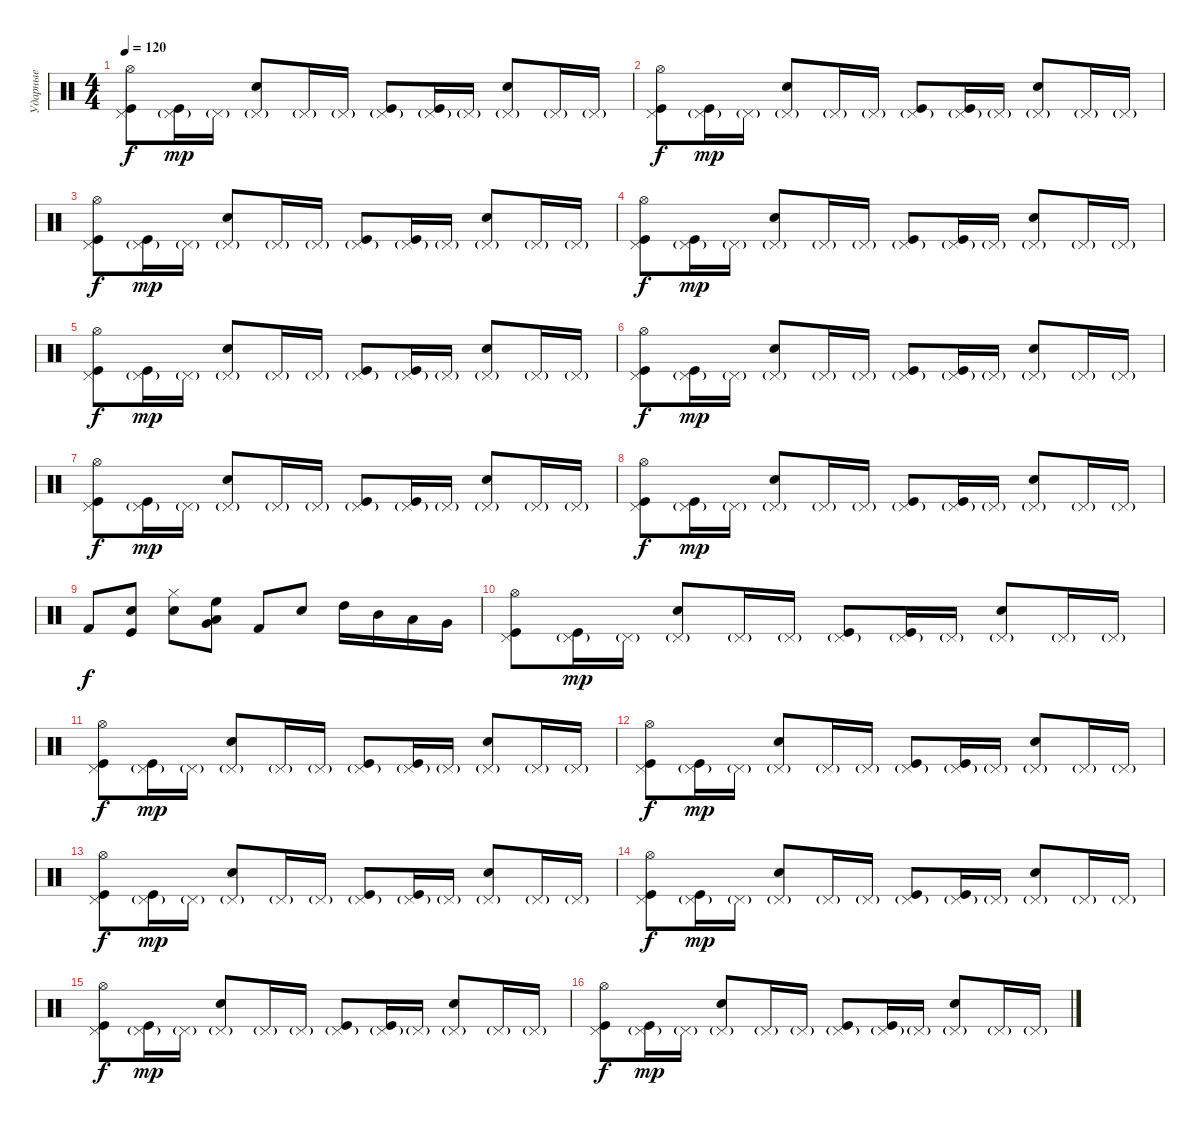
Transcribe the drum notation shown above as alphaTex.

\track ("Ударные" "Ударные") {instrument percussion}
\staff {score}
\articulation defaults
\ts (4 4)
\tempo 120
\clef neutral
\ks c
("Hi-Hat (open)" "Kick (hit)" "Pedal Hi-Hat (hit)").8{dy f} ("Kick (hit)" "Pedal Hi-Hat (hit)"{g}).16{dy mp} "Pedal Hi-Hat (hit)"{g}.16 ("Electric Snare (hit)" "Pedal Hi-Hat (hit)"{g}).8 "Pedal Hi-Hat (hit)"{g}.16 "Pedal Hi-Hat (hit)"{g}.16 ("Kick (hit)" "Pedal Hi-Hat (hit)"{g}).8 ("Kick (hit)" "Pedal Hi-Hat (hit)"{g}).16 "Pedal Hi-Hat (hit)"{g}.16 ("Electric Snare (hit)" "Pedal Hi-Hat (hit)"{g}).8 "Pedal Hi-Hat (hit)"{g}.16 "Pedal Hi-Hat (hit)"{g}.16 |
("Hi-Hat (open)" "Kick (hit)" "Pedal Hi-Hat (hit)").8{dy f} ("Kick (hit)" "Pedal Hi-Hat (hit)"{g}).16{dy mp} "Pedal Hi-Hat (hit)"{g}.16 ("Electric Snare (hit)" "Pedal Hi-Hat (hit)"{g}).8 "Pedal Hi-Hat (hit)"{g}.16 "Pedal Hi-Hat (hit)"{g}.16 ("Kick (hit)" "Pedal Hi-Hat (hit)"{g}).8 ("Kick (hit)" "Pedal Hi-Hat (hit)"{g}).16 "Pedal Hi-Hat (hit)"{g}.16 ("Electric Snare (hit)" "Pedal Hi-Hat (hit)"{g}).8 "Pedal Hi-Hat (hit)"{g}.16 "Pedal Hi-Hat (hit)"{g}.16 |
("Hi-Hat (open)" "Kick (hit)" "Pedal Hi-Hat (hit)").8{dy f} ("Kick (hit)" "Pedal Hi-Hat (hit)"{g}).16{dy mp} "Pedal Hi-Hat (hit)"{g}.16 ("Electric Snare (hit)" "Pedal Hi-Hat (hit)"{g}).8 "Pedal Hi-Hat (hit)"{g}.16 "Pedal Hi-Hat (hit)"{g}.16 ("Kick (hit)" "Pedal Hi-Hat (hit)"{g}).8 ("Kick (hit)" "Pedal Hi-Hat (hit)"{g}).16 "Pedal Hi-Hat (hit)"{g}.16 ("Electric Snare (hit)" "Pedal Hi-Hat (hit)"{g}).8 "Pedal Hi-Hat (hit)"{g}.16 "Pedal Hi-Hat (hit)"{g}.16 |
("Hi-Hat (open)" "Kick (hit)" "Pedal Hi-Hat (hit)").8{dy f} ("Kick (hit)" "Pedal Hi-Hat (hit)"{g}).16{dy mp} "Pedal Hi-Hat (hit)"{g}.16 ("Electric Snare (hit)" "Pedal Hi-Hat (hit)"{g}).8 "Pedal Hi-Hat (hit)"{g}.16 "Pedal Hi-Hat (hit)"{g}.16 ("Kick (hit)" "Pedal Hi-Hat (hit)"{g}).8 ("Kick (hit)" "Pedal Hi-Hat (hit)"{g}).16 "Pedal Hi-Hat (hit)"{g}.16 ("Electric Snare (hit)" "Pedal Hi-Hat (hit)"{g}).8 "Pedal Hi-Hat (hit)"{g}.16 "Pedal Hi-Hat (hit)"{g}.16 |
("Hi-Hat (open)" "Kick (hit)" "Pedal Hi-Hat (hit)").8{dy f} ("Kick (hit)" "Pedal Hi-Hat (hit)"{g}).16{dy mp} "Pedal Hi-Hat (hit)"{g}.16 ("Electric Snare (hit)" "Pedal Hi-Hat (hit)"{g}).8 "Pedal Hi-Hat (hit)"{g}.16 "Pedal Hi-Hat (hit)"{g}.16 ("Kick (hit)" "Pedal Hi-Hat (hit)"{g}).8 ("Kick (hit)" "Pedal Hi-Hat (hit)"{g}).16 "Pedal Hi-Hat (hit)"{g}.16 ("Electric Snare (hit)" "Pedal Hi-Hat (hit)"{g}).8 "Pedal Hi-Hat (hit)"{g}.16 "Pedal Hi-Hat (hit)"{g}.16 |
("Hi-Hat (open)" "Kick (hit)" "Pedal Hi-Hat (hit)").8{dy f} ("Kick (hit)" "Pedal Hi-Hat (hit)"{g}).16{dy mp} "Pedal Hi-Hat (hit)"{g}.16 ("Electric Snare (hit)" "Pedal Hi-Hat (hit)"{g}).8 "Pedal Hi-Hat (hit)"{g}.16 "Pedal Hi-Hat (hit)"{g}.16 ("Kick (hit)" "Pedal Hi-Hat (hit)"{g}).8 ("Kick (hit)" "Pedal Hi-Hat (hit)"{g}).16 "Pedal Hi-Hat (hit)"{g}.16 ("Electric Snare (hit)" "Pedal Hi-Hat (hit)"{g}).8 "Pedal Hi-Hat (hit)"{g}.16 "Pedal Hi-Hat (hit)"{g}.16 |
("Hi-Hat (open)" "Kick (hit)" "Pedal Hi-Hat (hit)").8{dy f} ("Kick (hit)" "Pedal Hi-Hat (hit)"{g}).16{dy mp} "Pedal Hi-Hat (hit)"{g}.16 ("Electric Snare (hit)" "Pedal Hi-Hat (hit)"{g}).8 "Pedal Hi-Hat (hit)"{g}.16 "Pedal Hi-Hat (hit)"{g}.16 ("Kick (hit)" "Pedal Hi-Hat (hit)"{g}).8 ("Kick (hit)" "Pedal Hi-Hat (hit)"{g}).16 "Pedal Hi-Hat (hit)"{g}.16 ("Electric Snare (hit)" "Pedal Hi-Hat (hit)"{g}).8 "Pedal Hi-Hat (hit)"{g}.16 "Pedal Hi-Hat (hit)"{g}.16 |
("Hi-Hat (open)" "Kick (hit)" "Pedal Hi-Hat (hit)").8{dy f} ("Kick (hit)" "Pedal Hi-Hat (hit)"{g}).16{dy mp} "Pedal Hi-Hat (hit)"{g}.16 ("Electric Snare (hit)" "Pedal Hi-Hat (hit)"{g}).8 "Pedal Hi-Hat (hit)"{g}.16 "Pedal Hi-Hat (hit)"{g}.16 ("Kick (hit)" "Pedal Hi-Hat (hit)"{g}).8 ("Kick (hit)" "Pedal Hi-Hat (hit)"{g}).16 "Pedal Hi-Hat (hit)"{g}.16 ("Electric Snare (hit)" "Pedal Hi-Hat (hit)"{g}).8 "Pedal Hi-Hat (hit)"{g}.16 "Pedal Hi-Hat (hit)"{g}.16 |
"Kick (hit) 2".8{dy f} ("Kick (hit)" "Snare (hit) 2").8 ("Hi-Hat (closed)" "Electric Snare (hit)").8 ("Low Tom (hit)" "Very Low Tom (hit)" "High Floor Tom (hit)").8 "Kick (hit) 2".8 "Electric Snare (hit)".8 "High Tom (hit)".16 "Mid Tom (hit)".16 "Low Tom (hit)".16 "Very Low Tom (hit)".16 |
("Hi-Hat (open)" "Kick (hit)" "Pedal Hi-Hat (hit)").8 ("Kick (hit)" "Pedal Hi-Hat (hit)"{g}).16{dy mp} "Pedal Hi-Hat (hit)"{g}.16 ("Electric Snare (hit)" "Pedal Hi-Hat (hit)"{g}).8 "Pedal Hi-Hat (hit)"{g}.16 "Pedal Hi-Hat (hit)"{g}.16 ("Kick (hit)" "Pedal Hi-Hat (hit)"{g}).8 ("Kick (hit)" "Pedal Hi-Hat (hit)"{g}).16 "Pedal Hi-Hat (hit)"{g}.16 ("Electric Snare (hit)" "Pedal Hi-Hat (hit)"{g}).8 "Pedal Hi-Hat (hit)"{g}.16 "Pedal Hi-Hat (hit)"{g}.16 |
("Hi-Hat (open)" "Kick (hit)" "Pedal Hi-Hat (hit)").8{dy f} ("Kick (hit)" "Pedal Hi-Hat (hit)"{g}).16{dy mp} "Pedal Hi-Hat (hit)"{g}.16 ("Electric Snare (hit)" "Pedal Hi-Hat (hit)"{g}).8 "Pedal Hi-Hat (hit)"{g}.16 "Pedal Hi-Hat (hit)"{g}.16 ("Kick (hit)" "Pedal Hi-Hat (hit)"{g}).8 ("Kick (hit)" "Pedal Hi-Hat (hit)"{g}).16 "Pedal Hi-Hat (hit)"{g}.16 ("Electric Snare (hit)" "Pedal Hi-Hat (hit)"{g}).8 "Pedal Hi-Hat (hit)"{g}.16 "Pedal Hi-Hat (hit)"{g}.16 |
("Hi-Hat (open)" "Kick (hit)" "Pedal Hi-Hat (hit)").8{dy f} ("Kick (hit)" "Pedal Hi-Hat (hit)"{g}).16{dy mp} "Pedal Hi-Hat (hit)"{g}.16 ("Electric Snare (hit)" "Pedal Hi-Hat (hit)"{g}).8 "Pedal Hi-Hat (hit)"{g}.16 "Pedal Hi-Hat (hit)"{g}.16 ("Kick (hit)" "Pedal Hi-Hat (hit)"{g}).8 ("Kick (hit)" "Pedal Hi-Hat (hit)"{g}).16 "Pedal Hi-Hat (hit)"{g}.16 ("Electric Snare (hit)" "Pedal Hi-Hat (hit)"{g}).8 "Pedal Hi-Hat (hit)"{g}.16 "Pedal Hi-Hat (hit)"{g}.16 |
("Hi-Hat (open)" "Kick (hit)" "Pedal Hi-Hat (hit)").8{dy f} ("Kick (hit)" "Pedal Hi-Hat (hit)"{g}).16{dy mp} "Pedal Hi-Hat (hit)"{g}.16 ("Electric Snare (hit)" "Pedal Hi-Hat (hit)"{g}).8 "Pedal Hi-Hat (hit)"{g}.16 "Pedal Hi-Hat (hit)"{g}.16 ("Kick (hit)" "Pedal Hi-Hat (hit)"{g}).8 ("Kick (hit)" "Pedal Hi-Hat (hit)"{g}).16 "Pedal Hi-Hat (hit)"{g}.16 ("Electric Snare (hit)" "Pedal Hi-Hat (hit)"{g}).8 "Pedal Hi-Hat (hit)"{g}.16 "Pedal Hi-Hat (hit)"{g}.16 |
("Hi-Hat (open)" "Kick (hit)" "Pedal Hi-Hat (hit)").8{dy f} ("Kick (hit)" "Pedal Hi-Hat (hit)"{g}).16{dy mp} "Pedal Hi-Hat (hit)"{g}.16 ("Electric Snare (hit)" "Pedal Hi-Hat (hit)"{g}).8 "Pedal Hi-Hat (hit)"{g}.16 "Pedal Hi-Hat (hit)"{g}.16 ("Kick (hit)" "Pedal Hi-Hat (hit)"{g}).8 ("Kick (hit)" "Pedal Hi-Hat (hit)"{g}).16 "Pedal Hi-Hat (hit)"{g}.16 ("Electric Snare (hit)" "Pedal Hi-Hat (hit)"{g}).8 "Pedal Hi-Hat (hit)"{g}.16 "Pedal Hi-Hat (hit)"{g}.16 |
("Hi-Hat (open)" "Kick (hit)" "Pedal Hi-Hat (hit)").8{dy f} ("Kick (hit)" "Pedal Hi-Hat (hit)"{g}).16{dy mp} "Pedal Hi-Hat (hit)"{g}.16 ("Electric Snare (hit)" "Pedal Hi-Hat (hit)"{g}).8 "Pedal Hi-Hat (hit)"{g}.16 "Pedal Hi-Hat (hit)"{g}.16 ("Kick (hit)" "Pedal Hi-Hat (hit)"{g}).8 ("Kick (hit)" "Pedal Hi-Hat (hit)"{g}).16 "Pedal Hi-Hat (hit)"{g}.16 ("Electric Snare (hit)" "Pedal Hi-Hat (hit)"{g}).8 "Pedal Hi-Hat (hit)"{g}.16 "Pedal Hi-Hat (hit)"{g}.16 |
("Hi-Hat (open)" "Kick (hit)" "Pedal Hi-Hat (hit)").8{dy f} ("Kick (hit)" "Pedal Hi-Hat (hit)"{g}).16{dy mp} "Pedal Hi-Hat (hit)"{g}.16 ("Electric Snare (hit)" "Pedal Hi-Hat (hit)"{g}).8 "Pedal Hi-Hat (hit)"{g}.16 "Pedal Hi-Hat (hit)"{g}.16 ("Kick (hit)" "Pedal Hi-Hat (hit)"{g}).8 ("Kick (hit)" "Pedal Hi-Hat (hit)"{g}).16 "Pedal Hi-Hat (hit)"{g}.16 ("Electric Snare (hit)" "Pedal Hi-Hat (hit)"{g}).8 "Pedal Hi-Hat (hit)"{g}.16 "Pedal Hi-Hat (hit)"{g}.16
